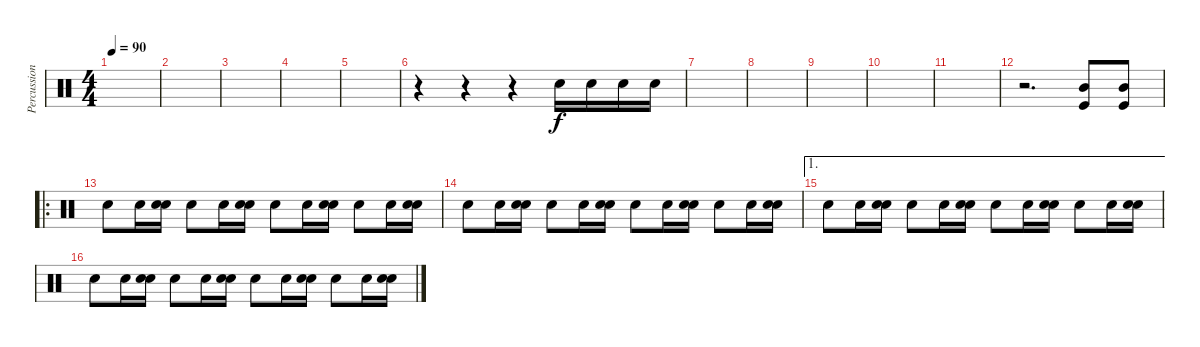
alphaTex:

\track ("Percussions" "Percussion") {instrument percussion}
\staff {score}
\articulation defaults
\ts (4 4)
\tempo 90
\clef neutral
\ks c
|
|
|
|
|
r.4 r.4 r.4 "Electric Snare (hit)".16 "Electric Snare (hit)".16 "Electric Snare (hit)".16 "Electric Snare (hit)".16 |
|
|
|
|
|
r.2{d} ("Mid Tom (hit)" "Kick (hit)").8 ("Mid Tom (hit)" "Kick (hit)").8 |
\ro "Snare (hit) 2".8 "Snare (hit) 2".16
("Electric Snare (hit)" "Snare (hit) 2").16 "Snare (hit) 2".8 "Snare (hit) 2".16 ("Electric Snare (hit)" "Snare (hit) 2").16 "Snare (hit) 2".8 "Snare (hit) 2".16 ("Electric Snare (hit)" "Snare (hit) 2").16 "Snare (hit) 2".8 "Snare (hit) 2".16 ("Electric Snare (hit)" "Snare (hit) 2").16 |
"Snare (hit) 2".8 "Snare (hit) 2".16 ("Electric Snare (hit)" "Snare (hit) 2").16 "Snare (hit) 2".8 "Snare (hit) 2".16 ("Electric Snare (hit)" "Snare (hit) 2").16 "Snare (hit) 2".8 "Snare (hit) 2".16 ("Electric Snare (hit)" "Snare (hit) 2").16 "Snare (hit) 2".8 "Snare (hit) 2".16 ("Electric Snare (hit)" "Snare (hit) 2").16 |
\ae 1 "Snare (hit) 2".8 "Snare (hit) 2".16
("Electric Snare (hit)" "Snare (hit) 2").16 "Snare (hit) 2".8 "Snare (hit) 2".16 ("Electric Snare (hit)" "Snare (hit) 2").16 "Snare (hit) 2".8 "Snare (hit) 2".16 ("Electric Snare (hit)" "Snare (hit) 2").16 "Snare (hit) 2".8 "Snare (hit) 2".16 ("Electric Snare (hit)" "Snare (hit) 2").16 |
"Snare (hit) 2".8 "Snare (hit) 2".16 ("Electric Snare (hit)" "Snare (hit) 2").16 "Snare (hit) 2".8 "Snare (hit) 2".16 ("Electric Snare (hit)" "Snare (hit) 2").16 "Snare (hit) 2".8 "Snare (hit) 2".16 ("Electric Snare (hit)" "Snare (hit) 2").16 "Snare (hit) 2".8 "Snare (hit) 2".16 ("Electric Snare (hit)" "Snare (hit) 2").16
